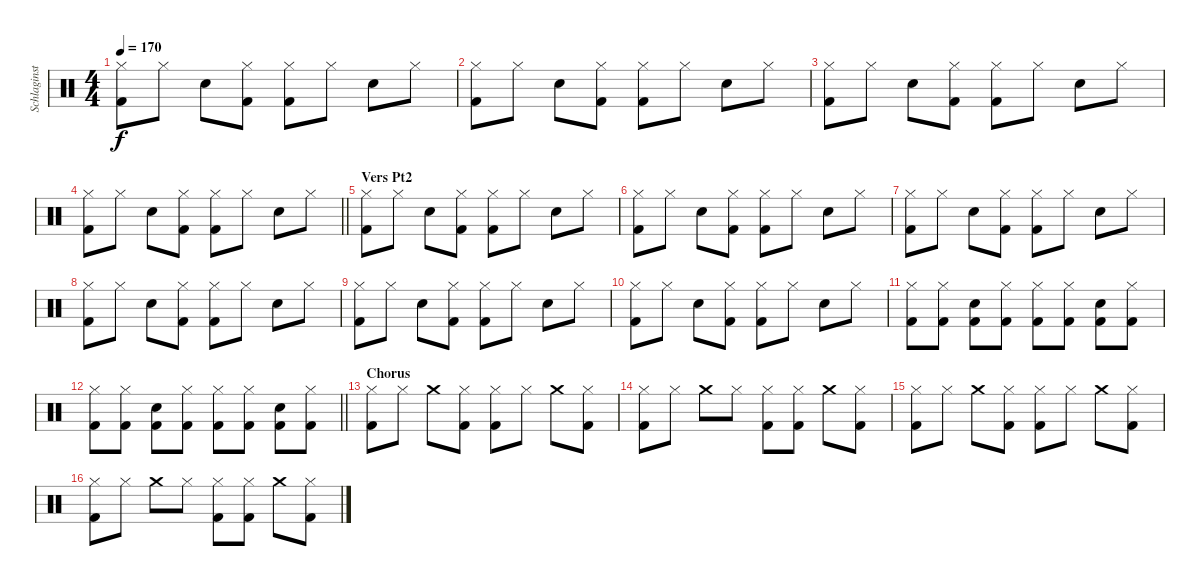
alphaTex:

\track ("Schlaginstrumente - Auswahl" "Schlaginst") {instrument percussion}
\staff {score}
\articulation defaults
\ts (4 4)
\tempo 170
\clef neutral
\ks c
("Hi-Hat (closed)" "Kick (hit) 2").8{dy f} "Hi-Hat (closed)".8 "Snare (hit) 2".8 ("Hi-Hat (closed)" "Kick (hit) 2").8 ("Hi-Hat (closed)" "Kick (hit) 2").8 "Hi-Hat (closed)".8 "Snare (hit) 2".8 "Hi-Hat (closed)".8 |
("Hi-Hat (closed)" "Kick (hit) 2").8 "Hi-Hat (closed)".8 "Snare (hit) 2".8 ("Hi-Hat (closed)" "Kick (hit) 2").8 ("Hi-Hat (closed)" "Kick (hit) 2").8 "Hi-Hat (closed)".8 "Snare (hit) 2".8 "Hi-Hat (closed)".8 |
("Hi-Hat (closed)" "Kick (hit) 2").8 "Hi-Hat (closed)".8 "Snare (hit) 2".8 ("Hi-Hat (closed)" "Kick (hit) 2").8 ("Hi-Hat (closed)" "Kick (hit) 2").8 "Hi-Hat (closed)".8 "Snare (hit) 2".8 "Hi-Hat (closed)".8 |
\barLineRight lightlight
("Hi-Hat (closed)" "Kick (hit) 2").8 "Hi-Hat (closed)".8 "Snare (hit) 2".8 ("Hi-Hat (closed)" "Kick (hit) 2").8 ("Hi-Hat (closed)" "Kick (hit) 2").8 "Hi-Hat (closed)".8 "Snare (hit) 2".8 "Hi-Hat (closed)".8 |
\section ("" "Vers Pt2")
("Hi-Hat (closed)" "Kick (hit) 2").8 "Hi-Hat (closed)".8 "Snare (hit) 2".8 ("Hi-Hat (closed)" "Kick (hit) 2").8 ("Hi-Hat (closed)" "Kick (hit) 2").8 "Hi-Hat (closed)".8 "Snare (hit) 2".8 "Hi-Hat (closed)".8 |
("Hi-Hat (closed)" "Kick (hit) 2").8 "Hi-Hat (closed)".8 "Snare (hit) 2".8 ("Hi-Hat (closed)" "Kick (hit) 2").8 ("Hi-Hat (closed)" "Kick (hit) 2").8 "Hi-Hat (closed)".8 "Snare (hit) 2".8 "Hi-Hat (closed)".8 |
("Hi-Hat (closed)" "Kick (hit) 2").8 "Hi-Hat (closed)".8 "Snare (hit) 2".8 ("Hi-Hat (closed)" "Kick (hit) 2").8 ("Hi-Hat (closed)" "Kick (hit) 2").8 "Hi-Hat (closed)".8 "Snare (hit) 2".8 "Hi-Hat (closed)".8 |
("Hi-Hat (closed)" "Kick (hit) 2").8 "Hi-Hat (closed)".8 "Snare (hit) 2".8 ("Hi-Hat (closed)" "Kick (hit) 2").8 ("Hi-Hat (closed)" "Kick (hit) 2").8 "Hi-Hat (closed)".8 "Snare (hit) 2".8 "Hi-Hat (closed)".8 |
("Hi-Hat (closed)" "Kick (hit) 2").8 "Hi-Hat (closed)".8 "Snare (hit) 2".8 ("Hi-Hat (closed)" "Kick (hit) 2").8 ("Hi-Hat (closed)" "Kick (hit) 2").8 "Hi-Hat (closed)".8 "Snare (hit) 2".8 "Hi-Hat (closed)".8 |
("Hi-Hat (closed)" "Kick (hit) 2").8 "Hi-Hat (closed)".8 "Snare (hit) 2".8 ("Hi-Hat (closed)" "Kick (hit) 2").8 ("Hi-Hat (closed)" "Kick (hit) 2").8 "Hi-Hat (closed)".8 "Snare (hit) 2".8 "Hi-Hat (closed)".8 |
("Hi-Hat (closed)" "Kick (hit) 2").8 ("Hi-Hat (closed)" "Kick (hit) 2").8 ("Snare (hit) 2" "Kick (hit) 2").8 ("Hi-Hat (closed)" "Kick (hit) 2").8 ("Hi-Hat (closed)" "Kick (hit) 2").8 ("Hi-Hat (closed)" "Kick (hit) 2").8 ("Snare (hit) 2" "Kick (hit) 2").8 ("Hi-Hat (closed)" "Kick (hit) 2").8 |
\barLineRight lightlight
("Hi-Hat (closed)" "Kick (hit) 2").8 ("Hi-Hat (closed)" "Kick (hit) 2").8 ("Snare (hit) 2" "Kick (hit) 2").8 ("Hi-Hat (closed)" "Kick (hit) 2").8 ("Hi-Hat (closed)" "Kick (hit) 2").8 ("Hi-Hat (closed)" "Kick (hit) 2").8 ("Snare (hit) 2" "Kick (hit) 2").8 ("Hi-Hat (closed)" "Kick (hit) 2").8 |
\section ("" "Chorus")
("Hi-Hat (closed)" "Kick (hit) 2").8 "Hi-Hat (closed)".8 "Crash medium (hit)".8 ("Hi-Hat (closed)" "Kick (hit) 2").8 ("Hi-Hat (closed)" "Kick (hit) 2").8 "Hi-Hat (closed)".8 "Crash medium (hit)".8 ("Hi-Hat (closed)" "Kick (hit) 2").8 |
("Hi-Hat (closed)" "Kick (hit) 2").8 "Hi-Hat (closed)".8 "Crash medium (hit)".8 "Hi-Hat (closed)".8 ("Hi-Hat (closed)" "Kick (hit) 2").8 ("Hi-Hat (closed)" "Kick (hit) 2").8 "Crash medium (hit)".8 ("Hi-Hat (closed)" "Kick (hit) 2").8 |
("Hi-Hat (closed)" "Kick (hit) 2").8 "Hi-Hat (closed)".8 "Crash medium (hit)".8 ("Hi-Hat (closed)" "Kick (hit) 2").8 ("Hi-Hat (closed)" "Kick (hit) 2").8 "Hi-Hat (closed)".8 "Crash medium (hit)".8 ("Hi-Hat (closed)" "Kick (hit) 2").8 |
("Hi-Hat (closed)" "Kick (hit) 2").8 "Hi-Hat (closed)".8 "Crash medium (hit)".8 "Hi-Hat (closed)".8 ("Hi-Hat (closed)" "Kick (hit) 2").8 ("Hi-Hat (closed)" "Kick (hit) 2").8 "Crash medium (hit)".8 ("Hi-Hat (closed)" "Kick (hit) 2").8
